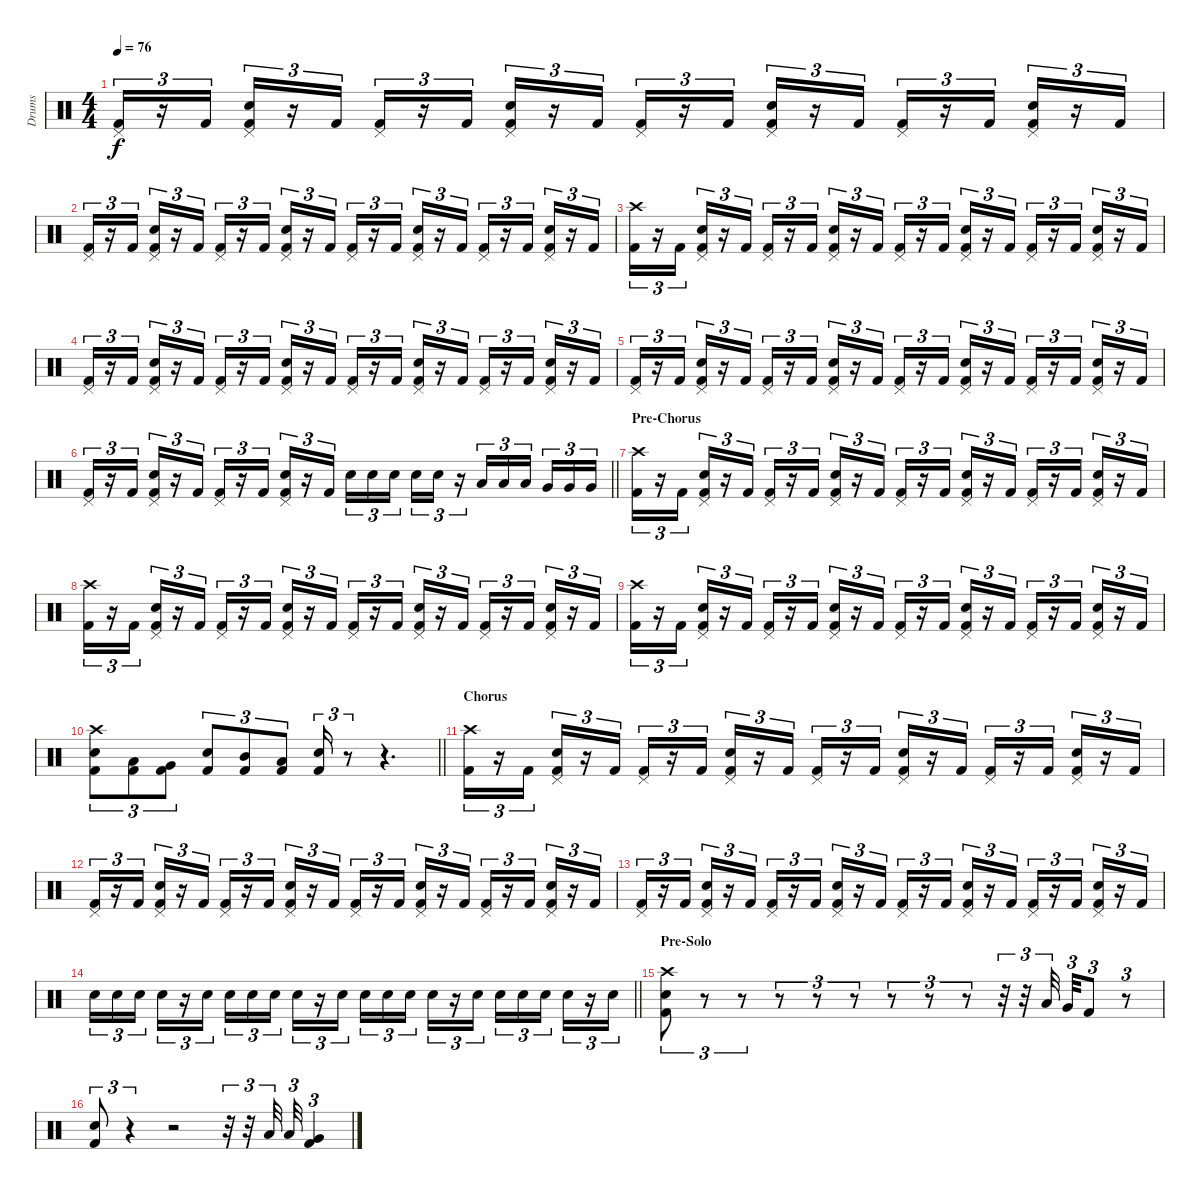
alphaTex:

\track ("Drums" "Drums") {instrument percussion}
\staff {score}
\articulation defaults
\ts (4 4)
\tempo 76
\clef neutral
\ks c
("Pedal Hi-Hat (hit)" "Kick (hit) 2").16{tu (3 2) dy f} r.16{tu (3 2)} "Kick (hit) 2".16{tu (3 2)} ("Pedal Hi-Hat (hit)" "Snare (hit) 2" "Kick (hit) 2").16{tu (3 2)} r.16{tu (3 2)} "Kick (hit) 2".16{tu (3 2)} ("Pedal Hi-Hat (hit)" "Kick (hit) 2").16{tu (3 2)} r.16{tu (3 2)} "Kick (hit) 2".16{tu (3 2)} ("Pedal Hi-Hat (hit)" "Snare (hit) 2" "Kick (hit) 2").16{tu (3 2)} r.16{tu (3 2)} "Kick (hit) 2".16{tu (3 2)} ("Pedal Hi-Hat (hit)" "Kick (hit) 2").16{tu (3 2)} r.16{tu (3 2)} "Kick (hit) 2".16{tu (3 2)} ("Pedal Hi-Hat (hit)" "Snare (hit) 2" "Kick (hit) 2").16{tu (3 2)} r.16{tu (3 2)} "Kick (hit) 2".16{tu (3 2)} ("Pedal Hi-Hat (hit)" "Kick (hit) 2").16{tu (3 2)} r.16{tu (3 2)} "Kick (hit) 2".16{tu (3 2)} ("Pedal Hi-Hat (hit)" "Snare (hit) 2" "Kick (hit) 2").16{tu (3 2)} r.16{tu (3 2)} "Kick (hit) 2".16{tu (3 2)} |
("Pedal Hi-Hat (hit)" "Kick (hit) 2").16{tu (3 2)} r.16{tu (3 2)} "Kick (hit) 2".16{tu (3 2)} ("Pedal Hi-Hat (hit)" "Snare (hit) 2" "Kick (hit) 2").16{tu (3 2)} r.16{tu (3 2)} "Kick (hit) 2".16{tu (3 2)} ("Pedal Hi-Hat (hit)" "Kick (hit) 2").16{tu (3 2)} r.16{tu (3 2)} "Kick (hit) 2".16{tu (3 2)} ("Pedal Hi-Hat (hit)" "Snare (hit) 2" "Kick (hit) 2").16{tu (3 2)} r.16{tu (3 2)} "Kick (hit) 2".16{tu (3 2)} ("Pedal Hi-Hat (hit)" "Kick (hit) 2").16{tu (3 2)} r.16{tu (3 2)} "Kick (hit) 2".16{tu (3 2)} ("Pedal Hi-Hat (hit)" "Snare (hit) 2" "Kick (hit) 2").16{tu (3 2)} r.16{tu (3 2)} "Kick (hit) 2".16{tu (3 2)} ("Pedal Hi-Hat (hit)" "Kick (hit) 2").16{tu (3 2)} r.16{tu (3 2)} "Kick (hit) 2".16{tu (3 2)} ("Pedal Hi-Hat (hit)" "Snare (hit) 2" "Kick (hit) 2").16{tu (3 2)} r.16{tu (3 2)} "Kick (hit) 2".16{tu (3 2)} |
("Crash high (hit)" "Kick (hit) 2").16{tu (3 2)} r.16{tu (3 2)} "Kick (hit) 2".16{tu (3 2)} ("Pedal Hi-Hat (hit)" "Snare (hit) 2" "Kick (hit) 2").16{tu (3 2)} r.16{tu (3 2)} "Kick (hit) 2".16{tu (3 2)} ("Pedal Hi-Hat (hit)" "Kick (hit) 2").16{tu (3 2)} r.16{tu (3 2)} "Kick (hit) 2".16{tu (3 2)} ("Pedal Hi-Hat (hit)" "Snare (hit) 2" "Kick (hit) 2").16{tu (3 2)} r.16{tu (3 2)} "Kick (hit) 2".16{tu (3 2)} ("Pedal Hi-Hat (hit)" "Kick (hit) 2").16{tu (3 2)} r.16{tu (3 2)} "Kick (hit) 2".16{tu (3 2)} ("Pedal Hi-Hat (hit)" "Snare (hit) 2" "Kick (hit) 2").16{tu (3 2)} r.16{tu (3 2)} "Kick (hit) 2".16{tu (3 2)} ("Pedal Hi-Hat (hit)" "Kick (hit) 2").16{tu (3 2)} r.16{tu (3 2)} "Kick (hit) 2".16{tu (3 2)} ("Pedal Hi-Hat (hit)" "Snare (hit) 2" "Kick (hit) 2").16{tu (3 2)} r.16{tu (3 2)} "Kick (hit) 2".16{tu (3 2)} |
("Pedal Hi-Hat (hit)" "Kick (hit) 2").16{tu (3 2)} r.16{tu (3 2)} "Kick (hit) 2".16{tu (3 2)} ("Pedal Hi-Hat (hit)" "Snare (hit) 2" "Kick (hit) 2").16{tu (3 2)} r.16{tu (3 2)} "Kick (hit) 2".16{tu (3 2)} ("Pedal Hi-Hat (hit)" "Kick (hit) 2").16{tu (3 2)} r.16{tu (3 2)} "Kick (hit) 2".16{tu (3 2)} ("Pedal Hi-Hat (hit)" "Snare (hit) 2" "Kick (hit) 2").16{tu (3 2)} r.16{tu (3 2)} "Kick (hit) 2".16{tu (3 2)} ("Pedal Hi-Hat (hit)" "Kick (hit) 2").16{tu (3 2)} r.16{tu (3 2)} "Kick (hit) 2".16{tu (3 2)} ("Pedal Hi-Hat (hit)" "Snare (hit) 2" "Kick (hit) 2").16{tu (3 2)} r.16{tu (3 2)} "Kick (hit) 2".16{tu (3 2)} ("Pedal Hi-Hat (hit)" "Kick (hit) 2").16{tu (3 2)} r.16{tu (3 2)} "Kick (hit) 2".16{tu (3 2)} ("Pedal Hi-Hat (hit)" "Snare (hit) 2" "Kick (hit) 2").16{tu (3 2)} r.16{tu (3 2)} "Kick (hit) 2".16{tu (3 2)} |
("Pedal Hi-Hat (hit)" "Kick (hit) 2").16{tu (3 2)} r.16{tu (3 2)} "Kick (hit) 2".16{tu (3 2)} ("Pedal Hi-Hat (hit)" "Snare (hit) 2" "Kick (hit) 2").16{tu (3 2)} r.16{tu (3 2)} "Kick (hit) 2".16{tu (3 2)} ("Pedal Hi-Hat (hit)" "Kick (hit) 2").16{tu (3 2)} r.16{tu (3 2)} "Kick (hit) 2".16{tu (3 2)} ("Pedal Hi-Hat (hit)" "Snare (hit) 2" "Kick (hit) 2").16{tu (3 2)} r.16{tu (3 2)} "Kick (hit) 2".16{tu (3 2)} ("Pedal Hi-Hat (hit)" "Kick (hit) 2").16{tu (3 2)} r.16{tu (3 2)} "Kick (hit) 2".16{tu (3 2)} ("Pedal Hi-Hat (hit)" "Snare (hit) 2" "Kick (hit) 2").16{tu (3 2)} r.16{tu (3 2)} "Kick (hit) 2".16{tu (3 2)} ("Pedal Hi-Hat (hit)" "Kick (hit) 2").16{tu (3 2)} r.16{tu (3 2)} "Kick (hit) 2".16{tu (3 2)} ("Pedal Hi-Hat (hit)" "Snare (hit) 2" "Kick (hit) 2").16{tu (3 2)} r.16{tu (3 2)} "Kick (hit) 2".16{tu (3 2)} |
\barLineRight lightlight
("Pedal Hi-Hat (hit)" "Kick (hit) 2").16{tu (3 2)} r.16{tu (3 2)} "Kick (hit) 2".16{tu (3 2)} ("Pedal Hi-Hat (hit)" "Snare (hit) 2" "Kick (hit) 2").16{tu (3 2)} r.16{tu (3 2)} "Kick (hit) 2".16{tu (3 2)} ("Pedal Hi-Hat (hit)" "Kick (hit) 2").16{tu (3 2)} r.16{tu (3 2)} "Kick (hit) 2".16{tu (3 2)} ("Pedal Hi-Hat (hit)" "Snare (hit) 2" "Kick (hit) 2").16{tu (3 2)} r.16{tu (3 2)} "Kick (hit) 2".16{tu (3 2)} "Snare (hit) 2".16{tu (3 2)} "Snare (hit) 2".16{tu (3 2)} "Snare (hit) 2".16{tu (3 2) beam splitsecondary} "Snare (hit) 2".16{tu (3 2)} "Snare (hit) 2".16{tu (3 2)} r.16{tu (3 2)} "Low Tom (hit)".16{tu (3 2)} "Low Tom (hit)".16{tu (3 2)} "Low Tom (hit)".16{tu (3 2) beam splitsecondary} "Very Low Tom (hit)".16{tu (3 2)} "Very Low Tom (hit)".16{tu (3 2)} "Very Low Tom (hit)".16{tu (3 2)} |
\section ("" "Pre-Chorus")
("Crash high (hit)" "Kick (hit) 2").16{tu (3 2)} r.16{tu (3 2)} "Kick (hit) 2".16{tu (3 2)} ("Pedal Hi-Hat (hit)" "Snare (hit) 2" "Kick (hit) 2").16{tu (3 2)} r.16{tu (3 2)} "Kick (hit) 2".16{tu (3 2)} ("Pedal Hi-Hat (hit)" "Kick (hit) 2").16{tu (3 2)} r.16{tu (3 2)} "Kick (hit) 2".16{tu (3 2)} ("Pedal Hi-Hat (hit)" "Snare (hit) 2" "Kick (hit) 2").16{tu (3 2)} r.16{tu (3 2)} "Kick (hit) 2".16{tu (3 2)} ("Pedal Hi-Hat (hit)" "Kick (hit) 2").16{tu (3 2)} r.16{tu (3 2)} "Kick (hit) 2".16{tu (3 2)} ("Pedal Hi-Hat (hit)" "Snare (hit) 2" "Kick (hit) 2").16{tu (3 2)} r.16{tu (3 2)} "Kick (hit) 2".16{tu (3 2)} ("Pedal Hi-Hat (hit)" "Kick (hit) 2").16{tu (3 2)} r.16{tu (3 2)} "Kick (hit) 2".16{tu (3 2)} ("Pedal Hi-Hat (hit)" "Snare (hit) 2" "Kick (hit) 2").16{tu (3 2)} r.16{tu (3 2)} "Kick (hit) 2".16{tu (3 2)} |
("Crash high (hit)" "Kick (hit) 2").16{tu (3 2)} r.16{tu (3 2)} "Kick (hit) 2".16{tu (3 2)} ("Pedal Hi-Hat (hit)" "Snare (hit) 2" "Kick (hit) 2").16{tu (3 2)} r.16{tu (3 2)} "Kick (hit) 2".16{tu (3 2)} ("Pedal Hi-Hat (hit)" "Kick (hit) 2").16{tu (3 2)} r.16{tu (3 2)} "Kick (hit) 2".16{tu (3 2)} ("Pedal Hi-Hat (hit)" "Snare (hit) 2" "Kick (hit) 2").16{tu (3 2)} r.16{tu (3 2)} "Kick (hit) 2".16{tu (3 2)} ("Pedal Hi-Hat (hit)" "Kick (hit) 2").16{tu (3 2)} r.16{tu (3 2)} "Kick (hit) 2".16{tu (3 2)} ("Pedal Hi-Hat (hit)" "Snare (hit) 2" "Kick (hit) 2").16{tu (3 2)} r.16{tu (3 2)} "Kick (hit) 2".16{tu (3 2)} ("Pedal Hi-Hat (hit)" "Kick (hit) 2").16{tu (3 2)} r.16{tu (3 2)} "Kick (hit) 2".16{tu (3 2)} ("Pedal Hi-Hat (hit)" "Snare (hit) 2" "Kick (hit) 2").16{tu (3 2)} r.16{tu (3 2)} "Kick (hit) 2".16{tu (3 2)} |
("Crash high (hit)" "Kick (hit) 2").16{tu (3 2)} r.16{tu (3 2)} "Kick (hit) 2".16{tu (3 2)} ("Pedal Hi-Hat (hit)" "Snare (hit) 2" "Kick (hit) 2").16{tu (3 2)} r.16{tu (3 2)} "Kick (hit) 2".16{tu (3 2)} ("Pedal Hi-Hat (hit)" "Kick (hit) 2").16{tu (3 2)} r.16{tu (3 2)} "Kick (hit) 2".16{tu (3 2)} ("Pedal Hi-Hat (hit)" "Snare (hit) 2" "Kick (hit) 2").16{tu (3 2)} r.16{tu (3 2)} "Kick (hit) 2".16{tu (3 2)} ("Pedal Hi-Hat (hit)" "Kick (hit) 2").16{tu (3 2)} r.16{tu (3 2)} "Kick (hit) 2".16{tu (3 2)} ("Pedal Hi-Hat (hit)" "Snare (hit) 2" "Kick (hit) 2").16{tu (3 2)} r.16{tu (3 2)} "Kick (hit) 2".16{tu (3 2)} ("Pedal Hi-Hat (hit)" "Kick (hit) 2").16{tu (3 2)} r.16{tu (3 2)} "Kick (hit) 2".16{tu (3 2)} ("Pedal Hi-Hat (hit)" "Snare (hit) 2" "Kick (hit) 2").16{tu (3 2)} r.16{tu (3 2)} "Kick (hit) 2".16{tu (3 2)} |
\barLineRight lightlight
("Crash high (hit)" "Snare (hit) 2" "Kick (hit) 2").8{tu (3 2)} ("Low Tom (hit)" "Kick (hit) 2").8{tu (3 2)} ("Very Low Tom (hit)" "Kick (hit) 2").8{tu (3 2)} ("Snare (hit) 2" "Kick (hit) 2").8{tu (3 2)} ("Mid Tom (hit)" "Kick (hit) 2").8{tu (3 2)} ("Low Tom (hit)" "Kick (hit) 2").8{tu (3 2)} ("Snare (hit) 2" "Kick (hit) 2").16{tu (3 2)} r.8{tu (3 2)} r.4{d} |
\section ("" "Chorus")
("Crash high (hit)" "Kick (hit) 2").16{tu (3 2)} r.16{tu (3 2)} "Kick (hit) 2".16{tu (3 2)} ("Pedal Hi-Hat (hit)" "Snare (hit) 2" "Kick (hit) 2").16{tu (3 2)} r.16{tu (3 2)} "Kick (hit) 2".16{tu (3 2)} ("Pedal Hi-Hat (hit)" "Kick (hit) 2").16{tu (3 2)} r.16{tu (3 2)} "Kick (hit) 2".16{tu (3 2)} ("Pedal Hi-Hat (hit)" "Snare (hit) 2" "Kick (hit) 2").16{tu (3 2)} r.16{tu (3 2)} "Kick (hit) 2".16{tu (3 2)} ("Pedal Hi-Hat (hit)" "Kick (hit) 2").16{tu (3 2)} r.16{tu (3 2)} "Kick (hit) 2".16{tu (3 2)} ("Pedal Hi-Hat (hit)" "Snare (hit) 2" "Kick (hit) 2").16{tu (3 2)} r.16{tu (3 2)} "Kick (hit) 2".16{tu (3 2)} ("Pedal Hi-Hat (hit)" "Kick (hit) 2").16{tu (3 2)} r.16{tu (3 2)} "Kick (hit) 2".16{tu (3 2)} ("Pedal Hi-Hat (hit)" "Snare (hit) 2" "Kick (hit) 2").16{tu (3 2)} r.16{tu (3 2)} "Kick (hit) 2".16{tu (3 2)} |
("Pedal Hi-Hat (hit)" "Kick (hit) 2").16{tu (3 2)} r.16{tu (3 2)} "Kick (hit) 2".16{tu (3 2)} ("Pedal Hi-Hat (hit)" "Snare (hit) 2" "Kick (hit) 2").16{tu (3 2)} r.16{tu (3 2)} "Kick (hit) 2".16{tu (3 2)} ("Pedal Hi-Hat (hit)" "Kick (hit) 2").16{tu (3 2)} r.16{tu (3 2)} "Kick (hit) 2".16{tu (3 2)} ("Pedal Hi-Hat (hit)" "Snare (hit) 2" "Kick (hit) 2").16{tu (3 2)} r.16{tu (3 2)} "Kick (hit) 2".16{tu (3 2)} ("Pedal Hi-Hat (hit)" "Kick (hit) 2").16{tu (3 2)} r.16{tu (3 2)} "Kick (hit) 2".16{tu (3 2)} ("Pedal Hi-Hat (hit)" "Snare (hit) 2" "Kick (hit) 2").16{tu (3 2)} r.16{tu (3 2)} "Kick (hit) 2".16{tu (3 2)} ("Pedal Hi-Hat (hit)" "Kick (hit) 2").16{tu (3 2)} r.16{tu (3 2)} "Kick (hit) 2".16{tu (3 2)} ("Pedal Hi-Hat (hit)" "Snare (hit) 2" "Kick (hit) 2").16{tu (3 2)} r.16{tu (3 2)} "Kick (hit) 2".16{tu (3 2)} |
("Pedal Hi-Hat (hit)" "Kick (hit) 2").16{tu (3 2)} r.16{tu (3 2)} "Kick (hit) 2".16{tu (3 2)} ("Pedal Hi-Hat (hit)" "Snare (hit) 2" "Kick (hit) 2").16{tu (3 2)} r.16{tu (3 2)} "Kick (hit) 2".16{tu (3 2)} ("Pedal Hi-Hat (hit)" "Kick (hit) 2").16{tu (3 2)} r.16{tu (3 2)} "Kick (hit) 2".16{tu (3 2)} ("Pedal Hi-Hat (hit)" "Snare (hit) 2" "Kick (hit) 2").16{tu (3 2)} r.16{tu (3 2)} "Kick (hit) 2".16{tu (3 2)} ("Pedal Hi-Hat (hit)" "Kick (hit) 2").16{tu (3 2)} r.16{tu (3 2)} "Kick (hit) 2".16{tu (3 2)} ("Pedal Hi-Hat (hit)" "Snare (hit) 2" "Kick (hit) 2").16{tu (3 2)} r.16{tu (3 2)} "Kick (hit) 2".16{tu (3 2)} ("Pedal Hi-Hat (hit)" "Kick (hit) 2").16{tu (3 2)} r.16{tu (3 2)} "Kick (hit) 2".16{tu (3 2)} ("Pedal Hi-Hat (hit)" "Snare (hit) 2" "Kick (hit) 2").16{tu (3 2)} r.16{tu (3 2)} "Kick (hit) 2".16{tu (3 2)} |
\barLineRight lightlight "Snare (hit) 2".16{tu (3 2)} "Snare (hit) 2".16{tu (3 2)} "Snare (hit) 2".16{tu (3 2) beam splitsecondary} "Snare (hit) 2".16{tu (3 2)}
r.16{tu (3 2)} "Snare (hit) 2".16{tu (3 2)} "Snare (hit) 2".16{tu (3 2)} "Snare (hit) 2".16{tu (3 2)} "Snare (hit) 2".16{tu (3 2) beam splitsecondary} "Snare (hit) 2".16{tu (3 2)} r.16{tu (3 2)} "Snare (hit) 2".16{tu (3 2)} "Snare (hit) 2".16{tu (3 2)} "Snare (hit) 2".16{tu (3 2)} "Snare (hit) 2".16{tu (3 2) beam splitsecondary} "Snare (hit) 2".16{tu (3 2)} r.16{tu (3 2)} "Snare (hit) 2".16{tu (3 2)} "Snare (hit) 2".16{tu (3 2)} "Snare (hit) 2".16{tu (3 2)} "Snare (hit) 2".16{tu (3 2) beam splitsecondary} "Snare (hit) 2".16{tu (3 2)} r.16{tu (3 2)} "Snare (hit) 2".16{tu (3 2)} |
\section ("" "Pre-Solo")
("Crash high (hit)" "Snare (hit) 2" "Kick (hit) 2").8{tu (3 2)} r.8{tu (3 2)} r.8{tu (3 2)} r.8{tu (3 2)} r.8{tu (3 2)} r.8{tu (3 2)} r.8{tu (3 2)} r.8{tu (3 2)} r.8{tu (3 2)} r.32{tu (3 2)} r.32{tu (3 2)} "Low Tom (hit)".32{tu (3 2) beam splitsecondary} "Very Low Tom (hit)".32{tu (3 2)} "Kick (hit) 2".8{tu (3 2)} r.8{tu (3 2)} |
("Snare (hit) 2" "Kick (hit) 2").8{tu (3 2)} r.4{tu (3 2)} r.2 r.32{tu (3 2)} r.32{tu (3 2)} "Low Tom (hit)".32{tu (3 2)} "Low Tom (hit)".32{tu (3 2)} ("Very Low Tom (hit)" "Kick (hit) 2").4{tu (3 2)}
